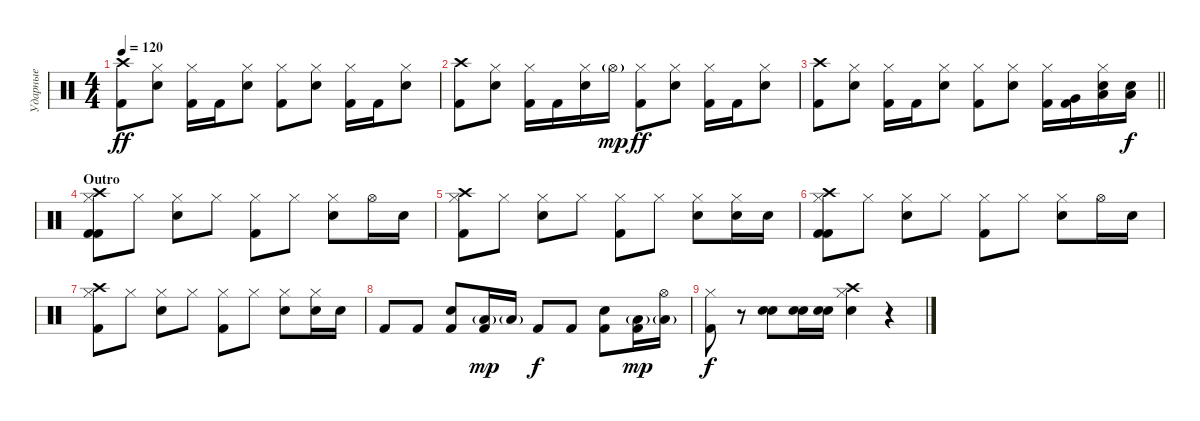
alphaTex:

\track ("Ударные" "Ударные") {instrument percussion}
\staff {score}
\articulation defaults
\ts (4 4)
\tempo 120
\clef neutral
\ks c
("Crash high (hit)" "Kick (hit) 2").8{dy ff} ("Hi-Hat (closed)" "Electric Snare (hit)").8 ("Hi-Hat (closed)" "Kick (hit) 2").16 "Kick (hit) 2".16 ("Hi-Hat (closed)" "Electric Snare (hit)").8 ("Hi-Hat (closed)" "Kick (hit) 2").8 ("Hi-Hat (closed)" "Electric Snare (hit)").8 ("Hi-Hat (closed)" "Kick (hit) 2").16 "Kick (hit) 2".16 ("Hi-Hat (closed)" "Electric Snare (hit)").8 |
("Crash high (hit)" "Kick (hit) 2").8 ("Hi-Hat (closed)" "Electric Snare (hit)").8 ("Hi-Hat (closed)" "Kick (hit) 2").16 "Kick (hit) 2".16 ("Hi-Hat (closed)" "Electric Snare (hit)").16 "Hi-Hat (open)"{g}.16{dy mp} ("Hi-Hat (closed)" "Kick (hit) 2").8{dy ff} ("Hi-Hat (closed)" "Electric Snare (hit)").8 ("Hi-Hat (closed)" "Kick (hit) 2").16 "Kick (hit) 2".16 ("Hi-Hat (closed)" "Electric Snare (hit)").8 |
\barLineRight lightlight
("Crash high (hit)" "Kick (hit) 2").8 ("Hi-Hat (closed)" "Electric Snare (hit)").8 ("Hi-Hat (closed)" "Kick (hit) 2").16 "Kick (hit) 2".16 ("Hi-Hat (closed)" "Electric Snare (hit)").8 ("Hi-Hat (closed)" "Kick (hit) 2").8 ("Hi-Hat (closed)" "Electric Snare (hit)").8 ("Hi-Hat (closed)" "Kick (hit) 2").16 ("Very Low Tom (hit)" "Kick (hit) 2").16 ("Hi-Hat (closed)" "Electric Snare (hit)" "Low Floor Tom (hit)").16 ("Snare (hit) 2" "Low Tom (hit)").16{dy f} |
\section ("" "Outro")
("Kick (hit) 2" "Crash high (hit)" "Hi-Hat (closed)" "Kick (hit) 2").8 "Hi-Hat (closed)".8 ("Hi-Hat (closed)" "Electric Snare (hit)").8 "Hi-Hat (closed)".8 ("Hi-Hat (closed)" "Kick (hit) 2").8 "Hi-Hat (closed)".8 ("Hi-Hat (closed)" "Electric Snare (hit)").8 "Hi-Hat (open)".16 "Electric Snare (hit)".16 |
("Crash high (hit)" "Hi-Hat (closed)" "Kick (hit) 2").8 "Hi-Hat (closed)".8 ("Hi-Hat (closed)" "Electric Snare (hit)").8 "Hi-Hat (closed)".8 ("Hi-Hat (closed)" "Kick (hit) 2").8 "Hi-Hat (closed)".8 ("Hi-Hat (closed)" "Electric Snare (hit)").8 ("Hi-Hat (closed)" "Electric Snare (hit)").16 "Electric Snare (hit)".16 |
("Kick (hit) 2" "Crash high (hit)" "Hi-Hat (closed)" "Kick (hit) 2").8 "Hi-Hat (closed)".8 ("Hi-Hat (closed)" "Electric Snare (hit)").8 "Hi-Hat (closed)".8 ("Hi-Hat (closed)" "Kick (hit) 2").8 "Hi-Hat (closed)".8 ("Hi-Hat (closed)" "Electric Snare (hit)").8 "Hi-Hat (open)".16 "Electric Snare (hit)".16 |
("Crash high (hit)" "Hi-Hat (closed)" "Kick (hit) 2").8 "Hi-Hat (closed)".8 ("Hi-Hat (closed)" "Electric Snare (hit)").8 "Hi-Hat (closed)".8 ("Hi-Hat (closed)" "Kick (hit) 2").8 "Hi-Hat (closed)".8 ("Hi-Hat (closed)" "Electric Snare (hit)").8 ("Hi-Hat (closed)" "Electric Snare (hit)").16 "Electric Snare (hit)".16 |
"Kick (hit) 2".8 "Kick (hit) 2".8 ("Snare (hit) 2" "Kick (hit) 2").8 ("Low Tom (hit)"{g} "Kick (hit) 2").16{dy mp} "Low Tom (hit)"{g}.16 "Kick (hit) 2".8{dy f} "Kick (hit) 2".8 ("Snare (hit) 2" "Kick (hit) 2").8 ("Low Tom (hit)"{g} "Kick (hit) 2").16{dy mp} ("Hi-Hat (open)" "Low Tom (hit)"{g}).16 |
("Kick (hit) 2" "Hi-Hat (closed)").8{dy f} r.8 ("Electric Snare (hit)" "Snare (hit) 2").8 ("Electric Snare (hit)" "Snare (hit) 2").16 ("Electric Snare (hit)" "Snare (hit) 2").16 ("Crash high (hit)" "Electric Snare (hit)" "Hi-Hat (closed)").4 r.4
